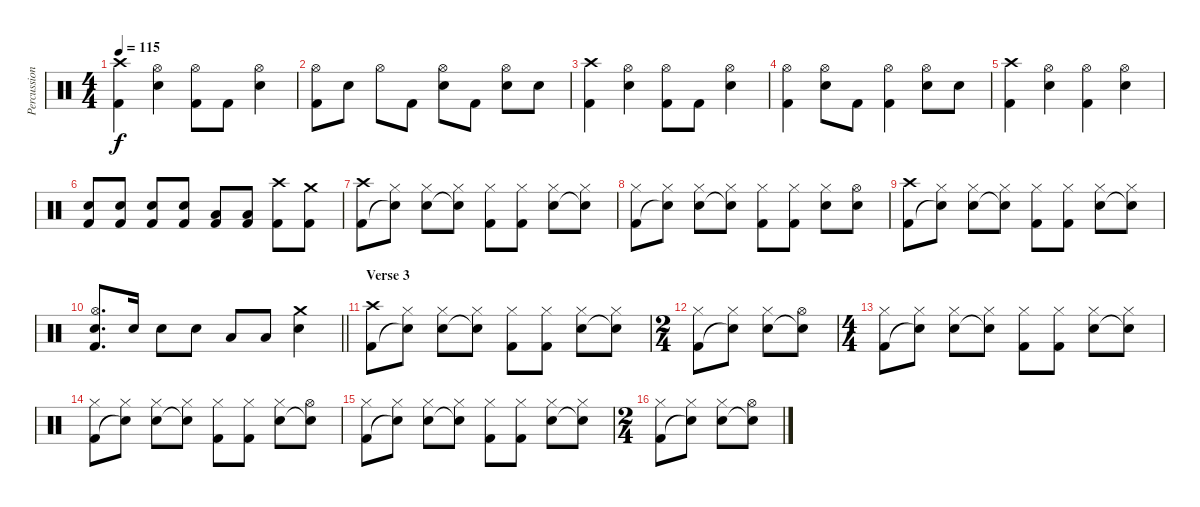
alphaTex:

\track ("Percussioni" "Percussion") {instrument percussion}
\staff {score}
\articulation defaults
\ts (4 4)
\tempo 115
\clef neutral
\ks c
("Crash high (hit)" "Kick (hit) 2").4{dy f} ("Hi-Hat (open)" "Electric Snare (hit)").4 ("Hi-Hat (open)" "Kick (hit) 2").8 "Kick (hit) 2".8 ("Hi-Hat (open)" "Electric Snare (hit)").4 |
("Hi-Hat (open)" "Kick (hit) 2").8 "Electric Snare (hit)".8 "Hi-Hat (open)".8 "Kick (hit) 2".8 ("Hi-Hat (open)" "Electric Snare (hit)").8 "Kick (hit) 2".8 ("Hi-Hat (open)" "Electric Snare (hit)").8 "Electric Snare (hit)".8 |
("Crash high (hit)" "Kick (hit) 2").4 ("Hi-Hat (open)" "Electric Snare (hit)").4 ("Hi-Hat (open)" "Kick (hit) 2").8 "Kick (hit) 2".8 ("Hi-Hat (open)" "Electric Snare (hit)").4 |
("Hi-Hat (open)" "Kick (hit) 2").4 ("Hi-Hat (open)" "Electric Snare (hit)").8 "Kick (hit) 2".8 ("Hi-Hat (open)" "Kick (hit) 2").4 ("Hi-Hat (open)" "Electric Snare (hit)").8 "Electric Snare (hit)".8 |
("Crash high (hit)" "Kick (hit) 2").4 ("Hi-Hat (open)" "Electric Snare (hit)").4 ("Hi-Hat (open)" "Kick (hit) 2").4 ("Hi-Hat (open)" "Electric Snare (hit)").4 |
("Electric Snare (hit)" "Kick (hit) 2").8 ("Electric Snare (hit)" "Kick (hit) 2").8 ("Electric Snare (hit)" "Kick (hit) 2").8 ("Electric Snare (hit)" "Kick (hit) 2").8 ("Low Tom (hit)" "Kick (hit) 2").8 ("Low Floor Tom (hit)" "Kick (hit) 2").8 ("Crash high (hit)" "Kick (hit) 2").8 ("Crash medium (hit)" "Kick (hit) 2").8 |
("Crash high (hit)" "Kick (hit) 2").8 ("Hi-Hat (closed)" "Snare (hit)"{t}).8 ("Hi-Hat (closed)" "Electric Snare (hit)").8 ("Hi-Hat (closed)" "Snare (hit)"{t}).8 ("Hi-Hat (closed)" "Kick (hit) 2").8 ("Hi-Hat (closed)" "Kick (hit) 2").8 ("Hi-Hat (closed)" "Electric Snare (hit)").8 ("Hi-Hat (closed)" "Snare (hit)"{t}).8 |
("Hi-Hat (closed)" "Kick (hit) 2").8 ("Hi-Hat (closed)" "Snare (hit)"{t}).8 ("Hi-Hat (closed)" "Electric Snare (hit)").8 ("Hi-Hat (closed)" "Snare (hit)"{t}).8 ("Hi-Hat (closed)" "Kick (hit) 2").8 ("Hi-Hat (closed)" "Kick (hit) 2").8 ("Hi-Hat (closed)" "Electric Snare (hit)").8 ("Hi-Hat (open)" "Electric Snare (hit)").8 |
("Crash high (hit)" "Kick (hit) 2").8 ("Hi-Hat (closed)" "Snare (hit)"{t}).8 ("Hi-Hat (closed)" "Electric Snare (hit)").8 ("Hi-Hat (closed)" "Snare (hit)"{t}).8 ("Hi-Hat (closed)" "Kick (hit) 2").8 ("Hi-Hat (closed)" "Kick (hit) 2").8 ("Hi-Hat (closed)" "Electric Snare (hit)").8 ("Hi-Hat (closed)" "Snare (hit)"{t}).8 |
\barLineRight lightlight
("Hi-Hat (open)" "Electric Snare (hit)" "Kick (hit) 2").8{d} "Electric Snare (hit)".16 "Electric Snare (hit)".8 "Electric Snare (hit)".8 "Low Tom (hit)".8 "Low Floor Tom (hit)".8 ("Crash medium (hit)" "Electric Snare (hit)").4 |
\section ("" "Verse 3")
("Crash high (hit)" "Kick (hit) 2").8 ("Hi-Hat (closed)" "Snare (hit)"{t}).8 ("Hi-Hat (closed)" "Electric Snare (hit)").8 ("Hi-Hat (closed)" "Snare (hit)"{t}).8 ("Hi-Hat (closed)" "Kick (hit) 2").8 ("Hi-Hat (closed)" "Kick (hit) 2").8 ("Hi-Hat (closed)" "Electric Snare (hit)").8 ("Hi-Hat (closed)" "Snare (hit)"{t}).8 |
\ts (2 4)
("Hi-Hat (closed)" "Kick (hit) 2").8 ("Hi-Hat (closed)" "Snare (hit)"{t}).8 ("Hi-Hat (closed)" "Electric Snare (hit)").8 ("Hi-Hat (open)" "Snare (hit)"{t}).8 |
\ts (4 4)
("Hi-Hat (closed)" "Kick (hit) 2").8 ("Hi-Hat (closed)" "Snare (hit)"{t}).8 ("Hi-Hat (closed)" "Electric Snare (hit)").8 ("Hi-Hat (closed)" "Snare (hit)"{t}).8 ("Hi-Hat (closed)" "Kick (hit) 2").8 ("Hi-Hat (closed)" "Kick (hit) 2").8 ("Hi-Hat (closed)" "Electric Snare (hit)").8 ("Hi-Hat (closed)" "Snare (hit)"{t}).8 |
("Hi-Hat (closed)" "Kick (hit) 2").8 ("Hi-Hat (closed)" "Snare (hit)"{t}).8 ("Hi-Hat (closed)" "Electric Snare (hit)").8 ("Hi-Hat (closed)" "Snare (hit)"{t}).8 ("Hi-Hat (closed)" "Kick (hit) 2").8 ("Hi-Hat (closed)" "Kick (hit) 2").8 ("Hi-Hat (closed)" "Electric Snare (hit)").8 ("Hi-Hat (open)" "Snare (hit)"{t}).8 |
("Hi-Hat (closed)" "Kick (hit) 2").8 ("Hi-Hat (closed)" "Snare (hit)"{t}).8 ("Hi-Hat (closed)" "Electric Snare (hit)").8 ("Hi-Hat (closed)" "Snare (hit)"{t}).8 ("Hi-Hat (closed)" "Kick (hit) 2").8 ("Hi-Hat (closed)" "Kick (hit) 2").8 ("Hi-Hat (closed)" "Electric Snare (hit)").8 ("Hi-Hat (closed)" "Snare (hit)"{t}).8 |
\ts (2 4)
("Hi-Hat (closed)" "Kick (hit) 2").8 ("Hi-Hat (closed)" "Snare (hit)"{t}).8 ("Hi-Hat (closed)" "Electric Snare (hit)").8 ("Hi-Hat (open)" "Snare (hit)"{t}).8
